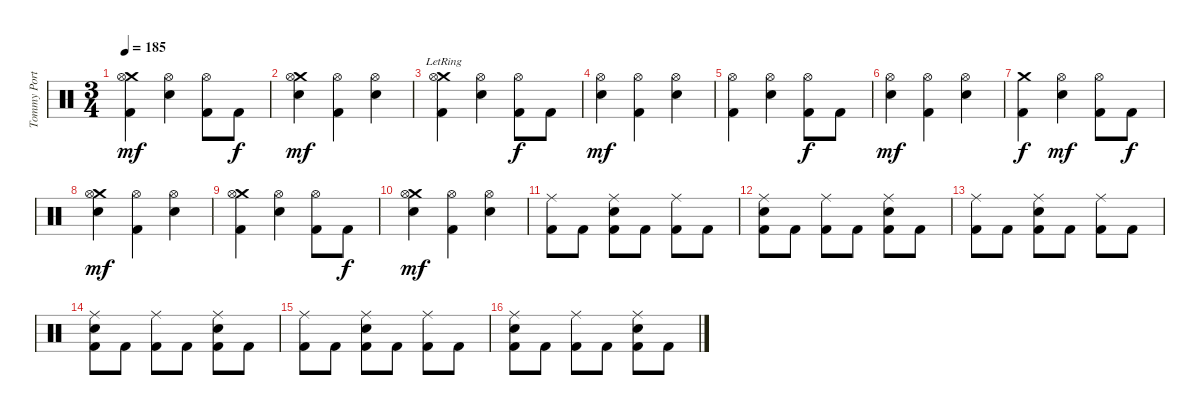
\track ("Tommy Portino" "Tommy Port") {instrument percussion}
\staff {score}
\articulation defaults
\ts (3 4)
\tempo 185
\clef neutral
\ks c
("Crash medium (hit)" "Hi-Hat (open)" "Kick (hit) 2").4{dy mf} ("Snare (hit) 2" "Hi-Hat (open)").4 ("Hi-Hat (open)" "Kick (hit) 2").8 "Kick (hit) 2".8{dy f} |
("Crash medium (hit)" "Snare (hit) 2" "Hi-Hat (open)").4{dy mf} ("Hi-Hat (open)" "Kick (hit) 2").4 ("Snare (hit) 2" "Hi-Hat (open)").4 |
("Crash medium (hit)"{lr} "Hi-Hat (open)" "Kick (hit) 2").4 ("Hi-Hat (open)" "Snare (hit) 2").4 ("Hi-Hat (open)" "Kick (hit) 2").8{dy f} "Kick (hit) 2".8 |
("Hi-Hat (open)" "Snare (hit) 2").4{dy mf} ("Hi-Hat (open)" "Kick (hit) 2").4 ("Hi-Hat (open)" "Snare (hit) 2").4 |
("Hi-Hat (open)" "Kick (hit) 2").4 ("Hi-Hat (open)" "Snare (hit) 2").4 ("Hi-Hat (open)" "Kick (hit) 2").8{dy f} "Kick (hit) 2".8 |
("Hi-Hat (open)" "Snare (hit) 2").4{dy mf} ("Hi-Hat (open)" "Kick (hit) 2").4 ("Hi-Hat (open)" "Snare (hit) 2").4 |
("Crash medium (hit)" "Kick (hit) 2").4{dy f} ("Snare (hit) 2" "Hi-Hat (open)").4{dy mf} ("Hi-Hat (open)" "Kick (hit) 2").8 "Kick (hit) 2".8{dy f} |
("Crash medium (hit)" "Snare (hit) 2" "Hi-Hat (open)").4{dy mf} ("Hi-Hat (open)" "Kick (hit) 2").4 ("Snare (hit) 2" "Hi-Hat (open)").4 |
("Crash medium (hit)" "Hi-Hat (open)" "Kick (hit) 2").4 ("Snare (hit) 2" "Hi-Hat (open)").4 ("Hi-Hat (open)" "Kick (hit) 2").8 "Kick (hit) 2".8{dy f} |
("Crash medium (hit)" "Snare (hit) 2" "Hi-Hat (open)").4{dy mf} ("Hi-Hat (open)" "Kick (hit) 2").4 ("Snare (hit) 2" "Hi-Hat (open)").4 |
("Ride (middle)" "Kick (hit) 2").8 "Kick (hit) 2".8 ("Ride (middle)" "Snare (hit) 2" "Kick (hit) 2").8 "Kick (hit) 2".8 ("Ride (middle)" "Kick (hit) 2").8 "Kick (hit) 2".8 |
("Ride (middle)" "Snare (hit) 2" "Kick (hit) 2").8 "Kick (hit) 2".8 ("Ride (middle)" "Kick (hit) 2").8 "Kick (hit) 2".8 ("Ride (middle)" "Snare (hit) 2" "Kick (hit) 2").8 "Kick (hit) 2".8 |
("Ride (middle)" "Kick (hit) 2").8 "Kick (hit) 2".8 ("Ride (middle)" "Snare (hit) 2" "Kick (hit) 2").8 "Kick (hit) 2".8 ("Ride (middle)" "Kick (hit) 2").8 "Kick (hit) 2".8 |
("Ride (middle)" "Snare (hit) 2" "Kick (hit) 2").8 "Kick (hit) 2".8 ("Ride (middle)" "Kick (hit) 2").8 "Kick (hit) 2".8 ("Ride (middle)" "Snare (hit) 2" "Kick (hit) 2").8 "Kick (hit) 2".8 |
("Ride (middle)" "Kick (hit) 2").8 "Kick (hit) 2".8 ("Ride (middle)" "Snare (hit) 2" "Kick (hit) 2").8 "Kick (hit) 2".8 ("Ride (middle)" "Kick (hit) 2").8 "Kick (hit) 2".8 |
("Ride (middle)" "Snare (hit) 2" "Kick (hit) 2").8 "Kick (hit) 2".8 ("Ride (middle)" "Kick (hit) 2").8 "Kick (hit) 2".8 ("Ride (middle)" "Snare (hit) 2" "Kick (hit) 2").8 "Kick (hit) 2".8
